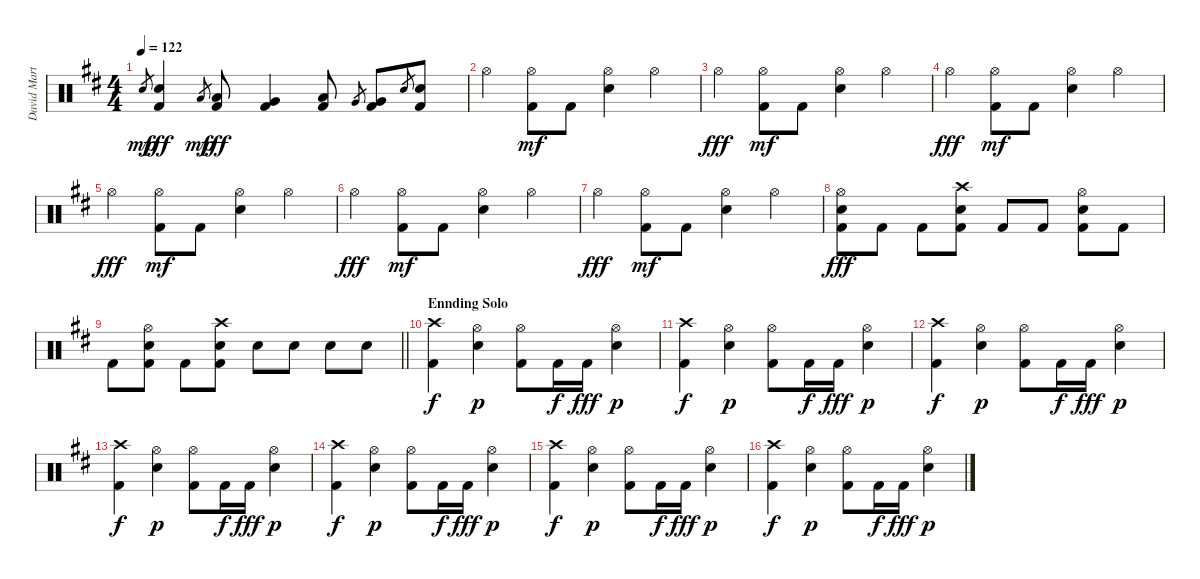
\track ("David Martinez" "David Mart") {instrument percussion}
\staff {score}
\articulation defaults
\ts (4 4)
\tempo 122
\clef neutral
\ks d "Snare (hit) 2".8{gr dy mp}
("Snare (hit) 2" "Kick (hit) 2").4{dy fff} "Low Floor Tom (hit)".8{gr dy mp} ("Low Floor Tom (hit)" "Kick (hit) 2").8{dy fff} ("Kick (hit) 2" "Very Low Tom (hit)").4 ("Low Tom (hit)" "Kick (hit) 2").8 "Very Low Tom (hit)".8{gr} ("Kick (hit) 2" "Very Low Tom (hit)").8 "Snare (hit) 2".8{gr} ("Snare (hit) 2" "Kick (hit) 2").8 |
"Hi-Hat (open)".4 ("Hi-Hat (open)" "Kick (hit) 2").8{dy mf} "Kick (hit) 2".8 ("Hi-Hat (open)" "Snare (hit) 2").4 "Hi-Hat (open)".4 |
"Hi-Hat (open)".4{dy fff} ("Hi-Hat (open)" "Kick (hit) 2").8{dy mf} "Kick (hit) 2".8 ("Hi-Hat (open)" "Snare (hit) 2").4 "Hi-Hat (open)".4 |
"Hi-Hat (open)".4{dy fff} ("Hi-Hat (open)" "Kick (hit) 2").8{dy mf} "Kick (hit) 2".8 ("Hi-Hat (open)" "Snare (hit) 2").4 "Hi-Hat (open)".4 |
"Hi-Hat (open)".4{dy fff} ("Hi-Hat (open)" "Kick (hit) 2").8{dy mf} "Kick (hit) 2".8 ("Hi-Hat (open)" "Snare (hit) 2").4 "Hi-Hat (open)".4 |
"Hi-Hat (open)".4{dy fff} ("Hi-Hat (open)" "Kick (hit) 2").8{dy mf} "Kick (hit) 2".8 ("Hi-Hat (open)" "Snare (hit) 2").4 "Hi-Hat (open)".4 |
"Hi-Hat (open)".4{dy fff} ("Hi-Hat (open)" "Kick (hit) 2").8{dy mf} "Kick (hit) 2".8 ("Hi-Hat (open)" "Snare (hit) 2").4 "Hi-Hat (open)".4 |
("Hi-Hat (open)" "Snare (hit) 2" "Kick (hit) 2").8{dy fff} "Kick (hit) 2".8 "Kick (hit) 2".8 ("Crash high (hit)" "Snare (hit) 2" "Kick (hit) 2").8 "Kick (hit) 2".8 "Kick (hit) 2".8 ("Hi-Hat (open)" "Snare (hit) 2" "Kick (hit) 2").8 "Kick (hit) 2".8 |
\barLineRight lightlight "Kick (hit) 2".8
("Hi-Hat (open)" "Snare (hit) 2" "Kick (hit) 2").8 "Kick (hit) 2".8 ("Crash high (hit)" "Snare (hit) 2" "Kick (hit) 2").8 "Snare (hit) 2".8 "Snare (hit) 2".8 "Snare (hit) 2".8 "Snare (hit) 2".8 |
\section ("" "Ennding Solo")
("Crash high (hit)" "Kick (hit) 2").4{dy f} ("Hi-Hat (open)" "Snare (hit) 2").4{dy p} ("Hi-Hat (open)" "Kick (hit) 2").8 "Kick (hit) 2".16{dy f} "Kick (hit) 2".16{dy fff} ("Hi-Hat (open)" "Snare (hit) 2").4{dy p} |
("Crash high (hit)" "Kick (hit) 2").4{dy f} ("Hi-Hat (open)" "Snare (hit) 2").4{dy p} ("Hi-Hat (open)" "Kick (hit) 2").8 "Kick (hit) 2".16{dy f} "Kick (hit) 2".16{dy fff} ("Hi-Hat (open)" "Snare (hit) 2").4{dy p} |
("Crash high (hit)" "Kick (hit) 2").4{dy f} ("Hi-Hat (open)" "Snare (hit) 2").4{dy p} ("Hi-Hat (open)" "Kick (hit) 2").8 "Kick (hit) 2".16{dy f} "Kick (hit) 2".16{dy fff} ("Hi-Hat (open)" "Snare (hit) 2").4{dy p} |
("Crash high (hit)" "Kick (hit) 2").4{dy f} ("Hi-Hat (open)" "Snare (hit) 2").4{dy p} ("Hi-Hat (open)" "Kick (hit) 2").8 "Kick (hit) 2".16{dy f} "Kick (hit) 2".16{dy fff} ("Hi-Hat (open)" "Snare (hit) 2").4{dy p} |
("Crash high (hit)" "Kick (hit) 2").4{dy f} ("Hi-Hat (open)" "Snare (hit) 2").4{dy p} ("Hi-Hat (open)" "Kick (hit) 2").8 "Kick (hit) 2".16{dy f} "Kick (hit) 2".16{dy fff} ("Hi-Hat (open)" "Snare (hit) 2").4{dy p} |
("Crash high (hit)" "Kick (hit) 2").4{dy f} ("Hi-Hat (open)" "Snare (hit) 2").4{dy p} ("Hi-Hat (open)" "Kick (hit) 2").8 "Kick (hit) 2".16{dy f} "Kick (hit) 2".16{dy fff} ("Hi-Hat (open)" "Snare (hit) 2").4{dy p} |
("Crash high (hit)" "Kick (hit) 2").4{dy f} ("Hi-Hat (open)" "Snare (hit) 2").4{dy p} ("Hi-Hat (open)" "Kick (hit) 2").8 "Kick (hit) 2".16{dy f} "Kick (hit) 2".16{dy fff} ("Hi-Hat (open)" "Snare (hit) 2").4{dy p}
